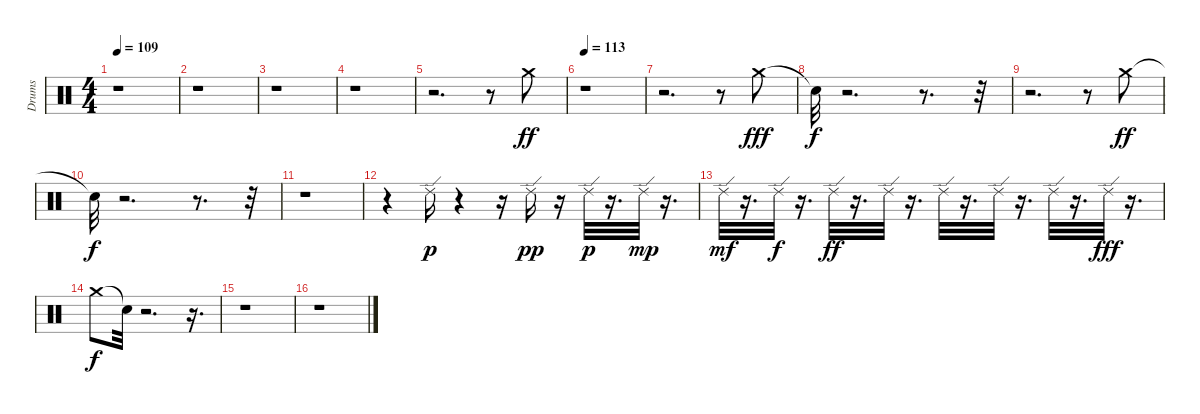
\track ("Drums" "Drums") {instrument percussion}
\staff {score}
\articulation defaults
\ts (4 4)
\tempo 109
\clef neutral
\ks c
r.1{dy ff} |
r.1 |
r.1 |
r.1 |
r.2{d} r.8 "Crash medium (hit)".8 |
\tempo 113
r.1 |
r.2{d} r.8 "Crash medium (hit)".8{dy fff} |
"Snare (hit)"{t}.32{dy f} r.2{d} r.8{d} r.32 |
r.2{d} r.8 "Crash medium (hit)".8{dy ff} |
"Snare (hit)"{t}.32{dy f} r.2{d} r.8{d} r.32 |
r.1 |
r.4 "Ride (edge) 2".16{dy p} r.4 r.16 "Ride (edge) 2".16{dy pp} r.16 "Ride (edge) 2".32{dy p} r.16{d} "Ride (edge) 2".32{dy mp} r.16{d} |
"Ride (edge) 2".32{dy mf} r.16{d} "Ride (edge) 2".32{dy f} r.16{d} "Ride (edge) 2".32{dy ff} r.16{d} "Ride (edge) 2".32 r.16{d} "Ride (edge) 2".32 r.16{d} "Ride (edge) 2".32 r.16{d} "Ride (edge) 2".32 r.16{d} "Ride (edge) 2".32{dy fff} r.16{d} |
"Crash medium (hit)".8{dy f} "Snare (hit)"{t}.32 r.2{d} r.16{d} |
r.1 |
r.1
